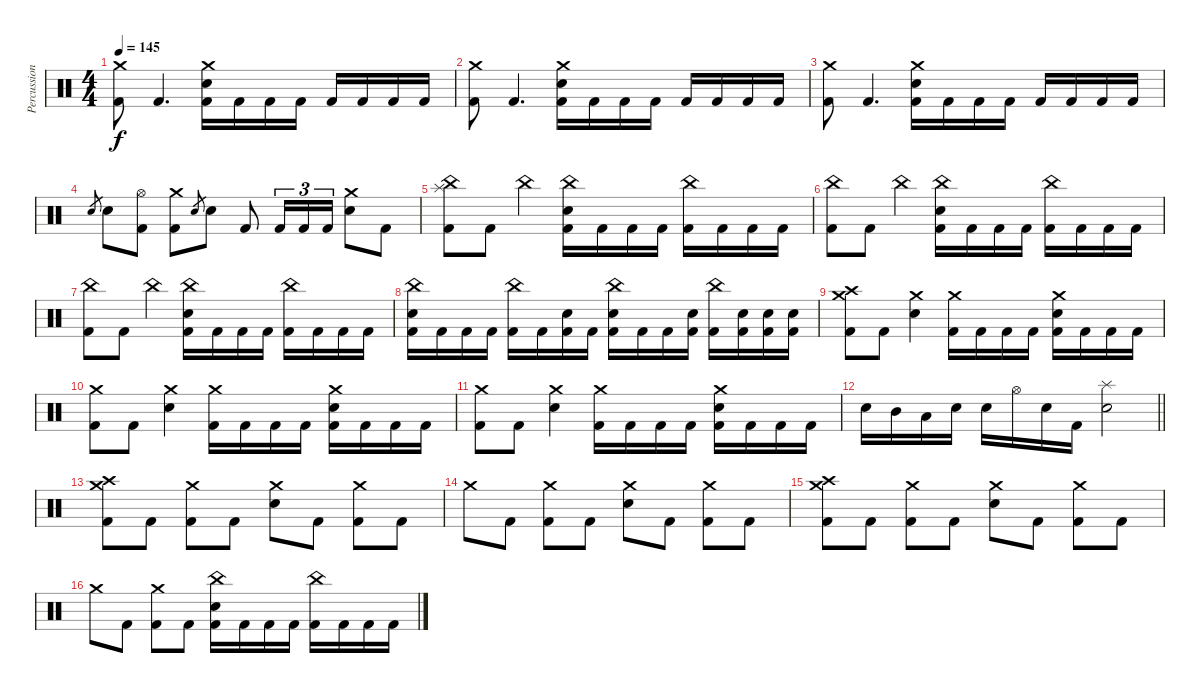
\track ("Percussion" "Percussion") {instrument percussion}
\staff {score}
\articulation defaults
\ts (4 4)
\tempo 145
\clef neutral
\ks c
("Crash medium (hit)" "Kick (hit) 2").8{dy f} "Kick (hit) 2".4{d} ("Crash medium (hit)" "Electric Snare (hit)" "Kick (hit) 2").16 "Kick (hit) 2".16 "Kick (hit) 2".16 "Kick (hit) 2".16 "Kick (hit) 2".16 "Kick (hit) 2".16 "Kick (hit) 2".16 "Kick (hit) 2".16 |
("Crash medium (hit)" "Kick (hit) 2").8 "Kick (hit) 2".4{d} ("Crash medium (hit)" "Electric Snare (hit)" "Kick (hit) 2").16 "Kick (hit) 2".16 "Kick (hit) 2".16 "Kick (hit) 2".16 "Kick (hit) 2".16 "Kick (hit) 2".16 "Kick (hit) 2".16 "Kick (hit) 2".16 |
("Crash medium (hit)" "Kick (hit) 2").8 "Kick (hit) 2".4{d} ("Crash medium (hit)" "Electric Snare (hit)" "Kick (hit) 2").16 "Kick (hit) 2".16 "Kick (hit) 2".16 "Kick (hit) 2".16 "Kick (hit) 2".16 "Kick (hit) 2".16 "Kick (hit) 2".16 "Kick (hit) 2".16 |
"Snare (hit) 2".8{gr} "Electric Snare (hit)".8 ("Hi-Hat (open)" "Kick (hit) 2").8 ("Crash medium (hit)" "Kick (hit) 2").8 "Snare (hit) 2".8{gr} "Electric Snare (hit)".8 "Kick (hit) 2".8 "Kick (hit) 2".16{tu (3 2)} "Kick (hit) 2".16{tu (3 2)} "Kick (hit) 2".16{tu (3 2)} ("Crash medium (hit)" "Electric Snare (hit)").8 "Kick (hit) 2".8 |
("China (hit)" "Splash (hit)" "Kick (hit) 2").8 "Kick (hit) 2".8 "China (hit)".4 ("China (hit)" "Electric Snare (hit)" "Kick (hit) 2").16 "Kick (hit) 2".16 "Kick (hit) 2".16 "Kick (hit) 2".16 ("China (hit)" "Kick (hit) 2").16 "Kick (hit) 2".16 "Kick (hit) 2".16 "Kick (hit) 2".16 |
("China (hit)" "Kick (hit) 2").8 "Kick (hit) 2".8 "China (hit)".4 ("China (hit)" "Electric Snare (hit)" "Kick (hit) 2").16 "Kick (hit) 2".16 "Kick (hit) 2".16 "Kick (hit) 2".16 ("China (hit)" "Kick (hit) 2").16 "Kick (hit) 2".16 "Kick (hit) 2".16 "Kick (hit) 2".16 |
("China (hit)" "Kick (hit) 2").8 "Kick (hit) 2".8 "China (hit)".4 ("China (hit)" "Electric Snare (hit)" "Kick (hit) 2").16 "Kick (hit) 2".16 "Kick (hit) 2".16 "Kick (hit) 2".16 ("China (hit)" "Kick (hit) 2").16 "Kick (hit) 2".16 "Kick (hit) 2".16 "Kick (hit) 2".16 |
("China (hit)" "Electric Snare (hit)" "Kick (hit) 2").16 "Kick (hit) 2".16 "Kick (hit) 2".16 "Kick (hit) 2".16 ("China (hit)" "Kick (hit) 2").16 "Kick (hit) 2".16 ("Electric Snare (hit)" "Kick (hit) 2").16 "Kick (hit) 2".16 ("China (hit)" "Electric Snare (hit)" "Kick (hit) 2").16 "Kick (hit) 2".16 "Kick (hit) 2".16 ("Electric Snare (hit)" "Kick (hit) 2").16 ("China (hit)" "Kick (hit) 2").16 ("Electric Snare (hit)" "Kick (hit) 2").16 ("Electric Snare (hit)" "Kick (hit) 2").16 ("Electric Snare (hit)" "Kick (hit) 2").16 |
("Crash medium (hit)" "Crash high (hit)" "Kick (hit) 2").8 "Kick (hit) 2".8 ("Crash medium (hit)" "Electric Snare (hit)").4 ("Crash medium (hit)" "Kick (hit) 2").16 "Kick (hit) 2".16 "Kick (hit) 2".16 "Kick (hit) 2".16 ("Crash medium (hit)" "Electric Snare (hit)" "Kick (hit) 2").16 "Kick (hit) 2".16 "Kick (hit) 2".16 "Kick (hit) 2".16 |
("Crash medium (hit)" "Kick (hit) 2").8 "Kick (hit) 2".8 ("Crash medium (hit)" "Electric Snare (hit)").4 ("Crash medium (hit)" "Kick (hit) 2").16 "Kick (hit) 2".16 "Kick (hit) 2".16 "Kick (hit) 2".16 ("Crash medium (hit)" "Electric Snare (hit)" "Kick (hit) 2").16 "Kick (hit) 2".16 "Kick (hit) 2".16 "Kick (hit) 2".16 |
("Crash medium (hit)" "Kick (hit) 2").8 "Kick (hit) 2".8 ("Crash medium (hit)" "Electric Snare (hit)").4 ("Crash medium (hit)" "Kick (hit) 2").16 "Kick (hit) 2".16 "Kick (hit) 2".16 "Kick (hit) 2".16 ("Crash medium (hit)" "Electric Snare (hit)" "Kick (hit) 2").16 "Kick (hit) 2".16 "Kick (hit) 2".16 "Kick (hit) 2".16 |
\barLineRight lightlight "Electric Snare (hit)".16 "Mid Tom (hit)".16 "Low Tom (hit)".16 "Electric Snare (hit)".16 "Electric Snare (hit)".16 "Hi-Hat (open)".16 "Electric Snare (hit)".16 "Kick (hit) 2".16
("Splash (hit)" "Electric Snare (hit)").2 |
\section ("" "")
("Crash medium (hit)" "Crash high (hit)" "Kick (hit) 2").8 "Kick (hit) 2".8 ("Crash medium (hit)" "Kick (hit) 2").8 "Kick (hit) 2".8 ("Crash medium (hit)" "Electric Snare (hit)").8 "Kick (hit) 2".8 ("Crash medium (hit)" "Kick (hit) 2").8 "Kick (hit) 2".8 |
"Crash medium (hit)".8 "Kick (hit) 2".8 ("Crash medium (hit)" "Kick (hit) 2").8 "Kick (hit) 2".8 ("Crash medium (hit)" "Electric Snare (hit)").8 "Kick (hit) 2".8 ("Crash medium (hit)" "Kick (hit) 2").8 "Kick (hit) 2".8 |
("Crash medium (hit)" "Crash high (hit)" "Kick (hit) 2").8 "Kick (hit) 2".8 ("Crash medium (hit)" "Kick (hit) 2").8 "Kick (hit) 2".8 ("Crash medium (hit)" "Electric Snare (hit)").8 "Kick (hit) 2".8 ("Crash medium (hit)" "Kick (hit) 2").8 "Kick (hit) 2".8 |
"Crash medium (hit)".8 "Kick (hit) 2".8 ("Crash medium (hit)" "Kick (hit) 2").8 "Kick (hit) 2".8 ("China (hit)" "Electric Snare (hit)" "Kick (hit) 2").16 "Kick (hit) 2".16 "Kick (hit) 2".16 "Kick (hit) 2".16 ("China (hit)" "Kick (hit) 2").16 "Kick (hit) 2".16 "Kick (hit) 2".16 "Kick (hit) 2".16
